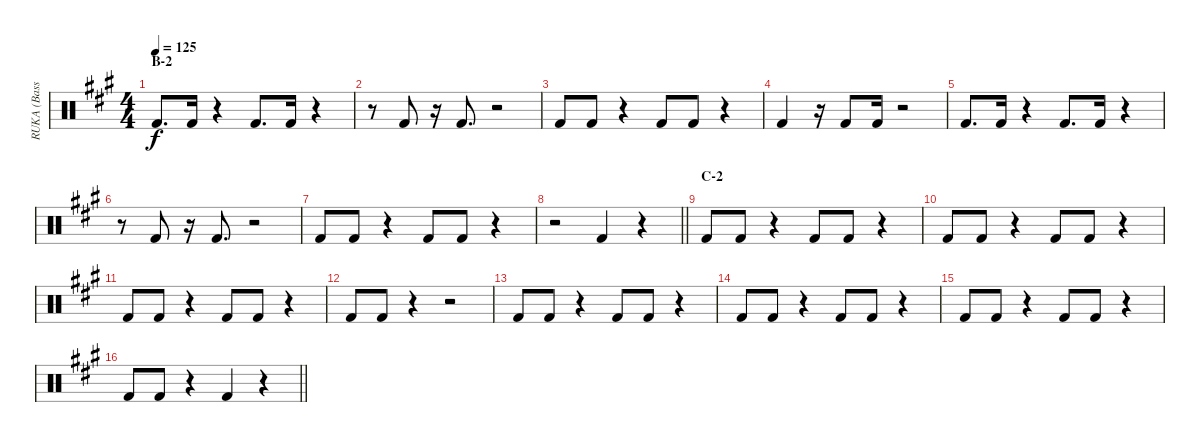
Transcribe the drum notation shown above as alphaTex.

\track ("RUKA (Bass Drum)" "RUKA (Bass") {instrument percussion}
\staff {score}
\articulation defaults
\ts (4 4)
\section ("" "B-2")
\tempo 125
\clef neutral
\ks a "Kick (hit) 2".8{d dy f} "Kick (hit) 2".16
r.4 "Kick (hit) 2".8{d} "Kick (hit) 2".16 r.4 |
r.8 "Kick (hit) 2".8 r.16 "Kick (hit) 2".8{d} r.2 |
"Kick (hit) 2".8 "Kick (hit) 2".8 r.4 "Kick (hit) 2".8 "Kick (hit) 2".8 r.4 |
"Kick (hit) 2".4 r.16 "Kick (hit) 2".8 "Kick (hit) 2".16 r.2 |
"Kick (hit) 2".8{d} "Kick (hit) 2".16 r.4 "Kick (hit) 2".8{d} "Kick (hit) 2".16 r.4 |
r.8 "Kick (hit) 2".8 r.16 "Kick (hit) 2".8{d} r.2 |
"Kick (hit) 2".8 "Kick (hit) 2".8 r.4 "Kick (hit) 2".8 "Kick (hit) 2".8 r.4 |
\barLineRight lightlight
r.2 "Kick (hit) 2".4 r.4 |
\section ("" "C-2")
"Kick (hit) 2".8 "Kick (hit) 2".8 r.4 "Kick (hit) 2".8 "Kick (hit) 2".8 r.4 |
"Kick (hit) 2".8 "Kick (hit) 2".8 r.4 "Kick (hit) 2".8 "Kick (hit) 2".8 r.4 |
"Kick (hit) 2".8 "Kick (hit) 2".8 r.4 "Kick (hit) 2".8 "Kick (hit) 2".8 r.4 |
"Kick (hit) 2".8 "Kick (hit) 2".8 r.4 r.2 |
"Kick (hit) 2".8 "Kick (hit) 2".8 r.4 "Kick (hit) 2".8 "Kick (hit) 2".8 r.4 |
"Kick (hit) 2".8 "Kick (hit) 2".8 r.4 "Kick (hit) 2".8 "Kick (hit) 2".8 r.4 |
"Kick (hit) 2".8 "Kick (hit) 2".8 r.4 "Kick (hit) 2".8 "Kick (hit) 2".8 r.4 |
\barLineRight lightlight "Kick (hit) 2".8 "Kick (hit) 2".8
r.4 "Kick (hit) 2".4 r.4
